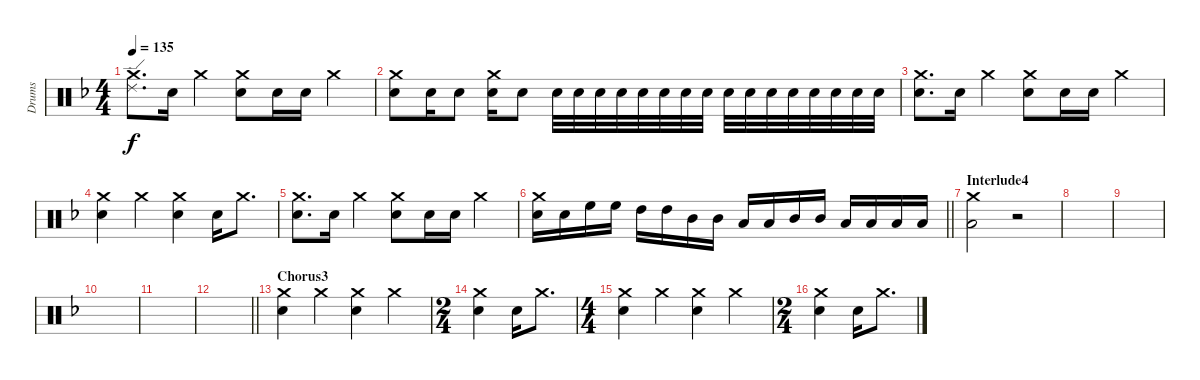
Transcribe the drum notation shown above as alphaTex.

\track ("Drums" "Drums") {instrument percussion}
\staff {score}
\articulation defaults
\ts (4 4)
\tempo 135
\clef neutral
\ks dminor
("Ride (edge) 2" "Crash medium (hit)").8{d dy f} "Snare (hit) 2".16 "Crash medium (hit)".4 ("Crash medium (hit)" "Snare (hit) 2").8 "Snare (hit) 2".16 "Snare (hit) 2".16 "Crash medium (hit)".4 |
("Crash medium (hit)" "Snare (hit) 2").8 "Snare (hit) 2".16 "Snare (hit) 2".8 ("Crash medium (hit)" "Snare (hit) 2").16 "Snare (hit) 2".8 "Snare (hit) 2".32 "Snare (hit) 2".32 "Snare (hit) 2".32 "Snare (hit) 2".32 "Snare (hit) 2".32 "Snare (hit) 2".32 "Snare (hit) 2".32 "Snare (hit) 2".32 "Snare (hit) 2".32 "Snare (hit) 2".32 "Snare (hit) 2".32 "Snare (hit) 2".32 "Snare (hit) 2".32 "Snare (hit) 2".32 "Snare (hit) 2".32 "Snare (hit) 2".32 |
("Crash medium (hit)" "Snare (hit) 2").8{d} "Snare (hit) 2".16 "Crash medium (hit)".4 ("Crash medium (hit)" "Snare (hit) 2").8 "Snare (hit) 2".16 "Snare (hit) 2".16 "Crash medium (hit)".4 |
("Crash medium (hit)" "Snare (hit) 2").4 "Crash medium (hit)".4 ("Crash medium (hit)" "Snare (hit) 2").4 "Snare (hit) 2".16 "Crash medium (hit)".8{d} |
("Crash medium (hit)" "Snare (hit) 2").8{d} "Snare (hit) 2".16 "Crash medium (hit)".4 ("Crash medium (hit)" "Snare (hit) 2").8 "Snare (hit) 2".16 "Snare (hit) 2".16 "Crash medium (hit)".4 |
\barLineRight lightlight
("Crash medium (hit)" "Snare (hit) 2").16 "Snare (hit) 2".16 "High Floor Tom (hit)".16 "High Floor Tom (hit)".16 "High Tom (hit)".16 "High Tom (hit)".16 "Mid Tom (hit)".16 "Mid Tom (hit)".16 "Low Tom (hit)".16 "Low Tom (hit)".16 "Mid Tom (hit)".16 "Mid Tom (hit)".16 "Low Tom (hit)".16 "Low Tom (hit)".16 "Low Floor Tom (hit)".16 "Low Floor Tom (hit)".16 |
\section ("" "Interlude4")
("Crash medium (hit)" "Low Floor Tom (hit)").2 r.2 |
|
|
|
|
\barLineRight lightlight
|
\section ("" "Chorus3")
("Crash medium (hit)" "Snare (hit) 2").4 "Crash medium (hit)".4 ("Crash medium (hit)" "Snare (hit) 2").4 "Crash medium (hit)".4 |
\ts (2 4)
("Crash medium (hit)" "Snare (hit) 2").4 "Snare (hit) 2".16 "Crash medium (hit)".8{d} |
\ts (4 4)
("Crash medium (hit)" "Snare (hit) 2").4 "Crash medium (hit)".4 ("Crash medium (hit)" "Snare (hit) 2").4 "Crash medium (hit)".4 |
\ts (2 4)
("Crash medium (hit)" "Snare (hit) 2").4 "Snare (hit) 2".16 "Crash medium (hit)".8{d}
